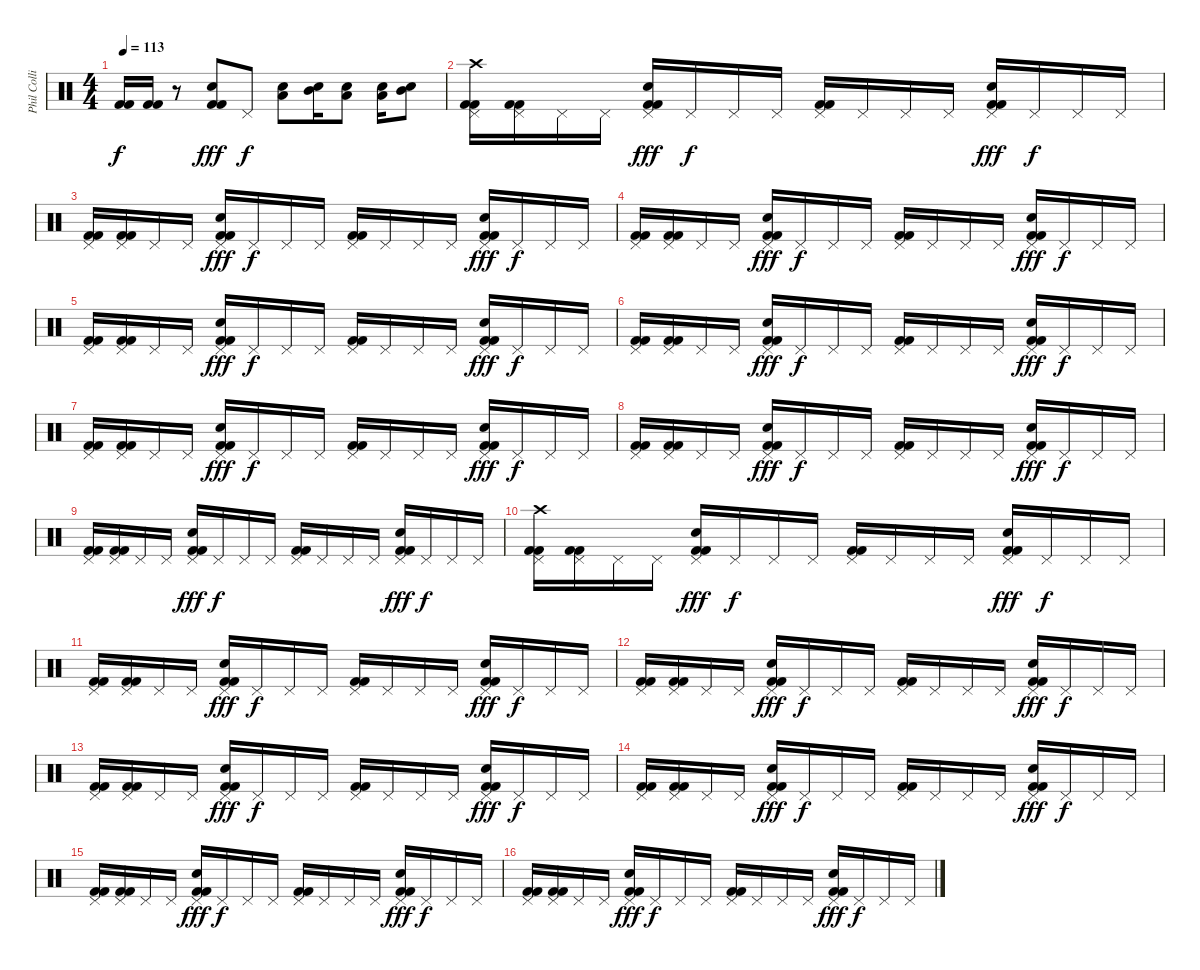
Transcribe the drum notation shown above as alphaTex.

\track ("Phil Collins" "Phil Colli") {instrument percussion}
\staff {score}
\articulation defaults
\ts (4 4)
\tempo 113
\clef neutral
\ks c
("Kick (hit) 2" "Kick (hit) 2").16{dy f} ("Kick (hit) 2" "Kick (hit) 2").16 r.8 ("Electric Snare (hit)" "Kick (hit) 2" "Kick (hit) 2").8{dy fff} "Pedal Hi-Hat (hit)".8{dy f} ("Electric Snare (hit)" "Low Tom (hit)").8 ("Electric Snare (hit)" "Mid Tom (hit)").16 ("Electric Snare (hit)" "Low Tom (hit)").8 ("Electric Snare (hit)" "Low Tom (hit)").16 ("Electric Snare (hit)" "Mid Tom (hit)").8 |
("Pedal Hi-Hat (hit)" "Crash high (hit)" "Kick (hit) 2" "Kick (hit) 2").16 ("Pedal Hi-Hat (hit)" "Kick (hit) 2" "Kick (hit) 2").16 "Pedal Hi-Hat (hit)".16 "Pedal Hi-Hat (hit)".16 ("Pedal Hi-Hat (hit)" "Electric Snare (hit)" "Kick (hit) 2" "Kick (hit) 2").16{dy fff} "Pedal Hi-Hat (hit)".16{dy f} "Pedal Hi-Hat (hit)".16 "Pedal Hi-Hat (hit)".16 ("Pedal Hi-Hat (hit)" "Kick (hit) 2" "Kick (hit) 2").16 "Pedal Hi-Hat (hit)".16 "Pedal Hi-Hat (hit)".16 "Pedal Hi-Hat (hit)".16 ("Pedal Hi-Hat (hit)" "Electric Snare (hit)" "Kick (hit) 2" "Kick (hit) 2").16{dy fff} "Pedal Hi-Hat (hit)".16{dy f} "Pedal Hi-Hat (hit)".16 "Pedal Hi-Hat (hit)".16 |
("Pedal Hi-Hat (hit)" "Kick (hit) 2" "Kick (hit) 2").16 ("Pedal Hi-Hat (hit)" "Kick (hit) 2" "Kick (hit) 2").16 "Pedal Hi-Hat (hit)".16 "Pedal Hi-Hat (hit)".16 ("Pedal Hi-Hat (hit)" "Electric Snare (hit)" "Kick (hit) 2" "Kick (hit) 2").16{dy fff} "Pedal Hi-Hat (hit)".16{dy f} "Pedal Hi-Hat (hit)".16 "Pedal Hi-Hat (hit)".16 ("Pedal Hi-Hat (hit)" "Kick (hit) 2" "Kick (hit) 2").16 "Pedal Hi-Hat (hit)".16 "Pedal Hi-Hat (hit)".16 "Pedal Hi-Hat (hit)".16 ("Pedal Hi-Hat (hit)" "Electric Snare (hit)" "Kick (hit) 2" "Kick (hit) 2").16{dy fff} "Pedal Hi-Hat (hit)".16{dy f} "Pedal Hi-Hat (hit)".16 "Pedal Hi-Hat (hit)".16 |
("Pedal Hi-Hat (hit)" "Kick (hit) 2" "Kick (hit) 2").16 ("Pedal Hi-Hat (hit)" "Kick (hit) 2" "Kick (hit) 2").16 "Pedal Hi-Hat (hit)".16 "Pedal Hi-Hat (hit)".16 ("Pedal Hi-Hat (hit)" "Electric Snare (hit)" "Kick (hit) 2" "Kick (hit) 2").16{dy fff} "Pedal Hi-Hat (hit)".16{dy f} "Pedal Hi-Hat (hit)".16 "Pedal Hi-Hat (hit)".16 ("Pedal Hi-Hat (hit)" "Kick (hit) 2" "Kick (hit) 2").16 "Pedal Hi-Hat (hit)".16 "Pedal Hi-Hat (hit)".16 "Pedal Hi-Hat (hit)".16 ("Pedal Hi-Hat (hit)" "Electric Snare (hit)" "Kick (hit) 2" "Kick (hit) 2").16{dy fff} "Pedal Hi-Hat (hit)".16{dy f} "Pedal Hi-Hat (hit)".16 "Pedal Hi-Hat (hit)".16 |
("Pedal Hi-Hat (hit)" "Kick (hit) 2" "Kick (hit) 2").16 ("Pedal Hi-Hat (hit)" "Kick (hit) 2" "Kick (hit) 2").16 "Pedal Hi-Hat (hit)".16 "Pedal Hi-Hat (hit)".16 ("Pedal Hi-Hat (hit)" "Electric Snare (hit)" "Kick (hit) 2" "Kick (hit) 2").16{dy fff} "Pedal Hi-Hat (hit)".16{dy f} "Pedal Hi-Hat (hit)".16 "Pedal Hi-Hat (hit)".16 ("Pedal Hi-Hat (hit)" "Kick (hit) 2" "Kick (hit) 2").16 "Pedal Hi-Hat (hit)".16 "Pedal Hi-Hat (hit)".16 "Pedal Hi-Hat (hit)".16 ("Pedal Hi-Hat (hit)" "Electric Snare (hit)" "Kick (hit) 2" "Kick (hit) 2").16{dy fff} "Pedal Hi-Hat (hit)".16{dy f} "Pedal Hi-Hat (hit)".16 "Pedal Hi-Hat (hit)".16 |
("Pedal Hi-Hat (hit)" "Kick (hit) 2" "Kick (hit) 2").16 ("Pedal Hi-Hat (hit)" "Kick (hit) 2" "Kick (hit) 2").16 "Pedal Hi-Hat (hit)".16 "Pedal Hi-Hat (hit)".16 ("Pedal Hi-Hat (hit)" "Electric Snare (hit)" "Kick (hit) 2" "Kick (hit) 2").16{dy fff} "Pedal Hi-Hat (hit)".16{dy f} "Pedal Hi-Hat (hit)".16 "Pedal Hi-Hat (hit)".16 ("Pedal Hi-Hat (hit)" "Kick (hit) 2" "Kick (hit) 2").16 "Pedal Hi-Hat (hit)".16 "Pedal Hi-Hat (hit)".16 "Pedal Hi-Hat (hit)".16 ("Pedal Hi-Hat (hit)" "Electric Snare (hit)" "Kick (hit) 2" "Kick (hit) 2").16{dy fff} "Pedal Hi-Hat (hit)".16{dy f} "Pedal Hi-Hat (hit)".16 "Pedal Hi-Hat (hit)".16 |
("Pedal Hi-Hat (hit)" "Kick (hit) 2" "Kick (hit) 2").16 ("Pedal Hi-Hat (hit)" "Kick (hit) 2" "Kick (hit) 2").16 "Pedal Hi-Hat (hit)".16 "Pedal Hi-Hat (hit)".16 ("Pedal Hi-Hat (hit)" "Electric Snare (hit)" "Kick (hit) 2" "Kick (hit) 2").16{dy fff} "Pedal Hi-Hat (hit)".16{dy f} "Pedal Hi-Hat (hit)".16 "Pedal Hi-Hat (hit)".16 ("Pedal Hi-Hat (hit)" "Kick (hit) 2" "Kick (hit) 2").16 "Pedal Hi-Hat (hit)".16 "Pedal Hi-Hat (hit)".16 "Pedal Hi-Hat (hit)".16 ("Pedal Hi-Hat (hit)" "Electric Snare (hit)" "Kick (hit) 2" "Kick (hit) 2").16{dy fff} "Pedal Hi-Hat (hit)".16{dy f} "Pedal Hi-Hat (hit)".16 "Pedal Hi-Hat (hit)".16 |
("Pedal Hi-Hat (hit)" "Kick (hit) 2" "Kick (hit) 2").16 ("Pedal Hi-Hat (hit)" "Kick (hit) 2" "Kick (hit) 2").16 "Pedal Hi-Hat (hit)".16 "Pedal Hi-Hat (hit)".16 ("Pedal Hi-Hat (hit)" "Electric Snare (hit)" "Kick (hit) 2" "Kick (hit) 2").16{dy fff} "Pedal Hi-Hat (hit)".16{dy f} "Pedal Hi-Hat (hit)".16 "Pedal Hi-Hat (hit)".16 ("Pedal Hi-Hat (hit)" "Kick (hit) 2" "Kick (hit) 2").16 "Pedal Hi-Hat (hit)".16 "Pedal Hi-Hat (hit)".16 "Pedal Hi-Hat (hit)".16 ("Pedal Hi-Hat (hit)" "Electric Snare (hit)" "Kick (hit) 2" "Kick (hit) 2").16{dy fff} "Pedal Hi-Hat (hit)".16{dy f} "Pedal Hi-Hat (hit)".16 "Pedal Hi-Hat (hit)".16 |
("Pedal Hi-Hat (hit)" "Kick (hit) 2" "Kick (hit) 2").16 ("Pedal Hi-Hat (hit)" "Kick (hit) 2" "Kick (hit) 2").16 "Pedal Hi-Hat (hit)".16 "Pedal Hi-Hat (hit)".16 ("Pedal Hi-Hat (hit)" "Electric Snare (hit)" "Kick (hit) 2" "Kick (hit) 2").16{dy fff} "Pedal Hi-Hat (hit)".16{dy f} "Pedal Hi-Hat (hit)".16 "Pedal Hi-Hat (hit)".16 ("Pedal Hi-Hat (hit)" "Kick (hit) 2" "Kick (hit) 2").16 "Pedal Hi-Hat (hit)".16 "Pedal Hi-Hat (hit)".16 "Pedal Hi-Hat (hit)".16 ("Pedal Hi-Hat (hit)" "Electric Snare (hit)" "Kick (hit) 2" "Kick (hit) 2").16{dy fff} "Pedal Hi-Hat (hit)".16{dy f} "Pedal Hi-Hat (hit)".16 "Pedal Hi-Hat (hit)".16 |
("Pedal Hi-Hat (hit)" "Crash high (hit)" "Kick (hit) 2" "Kick (hit) 2").16 ("Pedal Hi-Hat (hit)" "Kick (hit) 2" "Kick (hit) 2").16 "Pedal Hi-Hat (hit)".16 "Pedal Hi-Hat (hit)".16 ("Pedal Hi-Hat (hit)" "Electric Snare (hit)" "Kick (hit) 2" "Kick (hit) 2").16{dy fff} "Pedal Hi-Hat (hit)".16{dy f} "Pedal Hi-Hat (hit)".16 "Pedal Hi-Hat (hit)".16 ("Pedal Hi-Hat (hit)" "Kick (hit) 2" "Kick (hit) 2").16 "Pedal Hi-Hat (hit)".16 "Pedal Hi-Hat (hit)".16 "Pedal Hi-Hat (hit)".16 ("Pedal Hi-Hat (hit)" "Electric Snare (hit)" "Kick (hit) 2" "Kick (hit) 2").16{dy fff} "Pedal Hi-Hat (hit)".16{dy f} "Pedal Hi-Hat (hit)".16 "Pedal Hi-Hat (hit)".16 |
("Pedal Hi-Hat (hit)" "Kick (hit) 2" "Kick (hit) 2").16 ("Pedal Hi-Hat (hit)" "Kick (hit) 2" "Kick (hit) 2").16 "Pedal Hi-Hat (hit)".16 "Pedal Hi-Hat (hit)".16 ("Pedal Hi-Hat (hit)" "Electric Snare (hit)" "Kick (hit) 2" "Kick (hit) 2").16{dy fff} "Pedal Hi-Hat (hit)".16{dy f} "Pedal Hi-Hat (hit)".16 "Pedal Hi-Hat (hit)".16 ("Pedal Hi-Hat (hit)" "Kick (hit) 2" "Kick (hit) 2").16 "Pedal Hi-Hat (hit)".16 "Pedal Hi-Hat (hit)".16 "Pedal Hi-Hat (hit)".16 ("Pedal Hi-Hat (hit)" "Electric Snare (hit)" "Kick (hit) 2" "Kick (hit) 2").16{dy fff} "Pedal Hi-Hat (hit)".16{dy f} "Pedal Hi-Hat (hit)".16 "Pedal Hi-Hat (hit)".16 |
("Pedal Hi-Hat (hit)" "Kick (hit) 2" "Kick (hit) 2").16 ("Pedal Hi-Hat (hit)" "Kick (hit) 2" "Kick (hit) 2").16 "Pedal Hi-Hat (hit)".16 "Pedal Hi-Hat (hit)".16 ("Pedal Hi-Hat (hit)" "Electric Snare (hit)" "Kick (hit) 2" "Kick (hit) 2").16{dy fff} "Pedal Hi-Hat (hit)".16{dy f} "Pedal Hi-Hat (hit)".16 "Pedal Hi-Hat (hit)".16 ("Pedal Hi-Hat (hit)" "Kick (hit) 2" "Kick (hit) 2").16 "Pedal Hi-Hat (hit)".16 "Pedal Hi-Hat (hit)".16 "Pedal Hi-Hat (hit)".16 ("Pedal Hi-Hat (hit)" "Electric Snare (hit)" "Kick (hit) 2" "Kick (hit) 2").16{dy fff} "Pedal Hi-Hat (hit)".16{dy f} "Pedal Hi-Hat (hit)".16 "Pedal Hi-Hat (hit)".16 |
("Pedal Hi-Hat (hit)" "Kick (hit) 2" "Kick (hit) 2").16 ("Pedal Hi-Hat (hit)" "Kick (hit) 2" "Kick (hit) 2").16 "Pedal Hi-Hat (hit)".16 "Pedal Hi-Hat (hit)".16 ("Pedal Hi-Hat (hit)" "Electric Snare (hit)" "Kick (hit) 2" "Kick (hit) 2").16{dy fff} "Pedal Hi-Hat (hit)".16{dy f} "Pedal Hi-Hat (hit)".16 "Pedal Hi-Hat (hit)".16 ("Pedal Hi-Hat (hit)" "Kick (hit) 2" "Kick (hit) 2").16 "Pedal Hi-Hat (hit)".16 "Pedal Hi-Hat (hit)".16 "Pedal Hi-Hat (hit)".16 ("Pedal Hi-Hat (hit)" "Electric Snare (hit)" "Kick (hit) 2" "Kick (hit) 2").16{dy fff} "Pedal Hi-Hat (hit)".16{dy f} "Pedal Hi-Hat (hit)".16 "Pedal Hi-Hat (hit)".16 |
("Pedal Hi-Hat (hit)" "Kick (hit) 2" "Kick (hit) 2").16 ("Pedal Hi-Hat (hit)" "Kick (hit) 2" "Kick (hit) 2").16 "Pedal Hi-Hat (hit)".16 "Pedal Hi-Hat (hit)".16 ("Pedal Hi-Hat (hit)" "Electric Snare (hit)" "Kick (hit) 2" "Kick (hit) 2").16{dy fff} "Pedal Hi-Hat (hit)".16{dy f} "Pedal Hi-Hat (hit)".16 "Pedal Hi-Hat (hit)".16 ("Pedal Hi-Hat (hit)" "Kick (hit) 2" "Kick (hit) 2").16 "Pedal Hi-Hat (hit)".16 "Pedal Hi-Hat (hit)".16 "Pedal Hi-Hat (hit)".16 ("Pedal Hi-Hat (hit)" "Electric Snare (hit)" "Kick (hit) 2" "Kick (hit) 2").16{dy fff} "Pedal Hi-Hat (hit)".16{dy f} "Pedal Hi-Hat (hit)".16 "Pedal Hi-Hat (hit)".16 |
("Pedal Hi-Hat (hit)" "Kick (hit) 2" "Kick (hit) 2").16 ("Pedal Hi-Hat (hit)" "Kick (hit) 2" "Kick (hit) 2").16 "Pedal Hi-Hat (hit)".16 "Pedal Hi-Hat (hit)".16 ("Pedal Hi-Hat (hit)" "Electric Snare (hit)" "Kick (hit) 2" "Kick (hit) 2").16{dy fff} "Pedal Hi-Hat (hit)".16{dy f} "Pedal Hi-Hat (hit)".16 "Pedal Hi-Hat (hit)".16 ("Pedal Hi-Hat (hit)" "Kick (hit) 2" "Kick (hit) 2").16 "Pedal Hi-Hat (hit)".16 "Pedal Hi-Hat (hit)".16 "Pedal Hi-Hat (hit)".16 ("Pedal Hi-Hat (hit)" "Electric Snare (hit)" "Kick (hit) 2" "Kick (hit) 2").16{dy fff} "Pedal Hi-Hat (hit)".16{dy f} "Pedal Hi-Hat (hit)".16 "Pedal Hi-Hat (hit)".16 |
("Pedal Hi-Hat (hit)" "Kick (hit) 2" "Kick (hit) 2").16 ("Pedal Hi-Hat (hit)" "Kick (hit) 2" "Kick (hit) 2").16 "Pedal Hi-Hat (hit)".16 "Pedal Hi-Hat (hit)".16 ("Pedal Hi-Hat (hit)" "Electric Snare (hit)" "Kick (hit) 2" "Kick (hit) 2").16{dy fff} "Pedal Hi-Hat (hit)".16{dy f} "Pedal Hi-Hat (hit)".16 "Pedal Hi-Hat (hit)".16 ("Pedal Hi-Hat (hit)" "Kick (hit) 2" "Kick (hit) 2").16 "Pedal Hi-Hat (hit)".16 "Pedal Hi-Hat (hit)".16 "Pedal Hi-Hat (hit)".16 ("Pedal Hi-Hat (hit)" "Electric Snare (hit)" "Kick (hit) 2" "Kick (hit) 2").16{dy fff} "Pedal Hi-Hat (hit)".16{dy f} "Pedal Hi-Hat (hit)".16 "Pedal Hi-Hat (hit)".16
